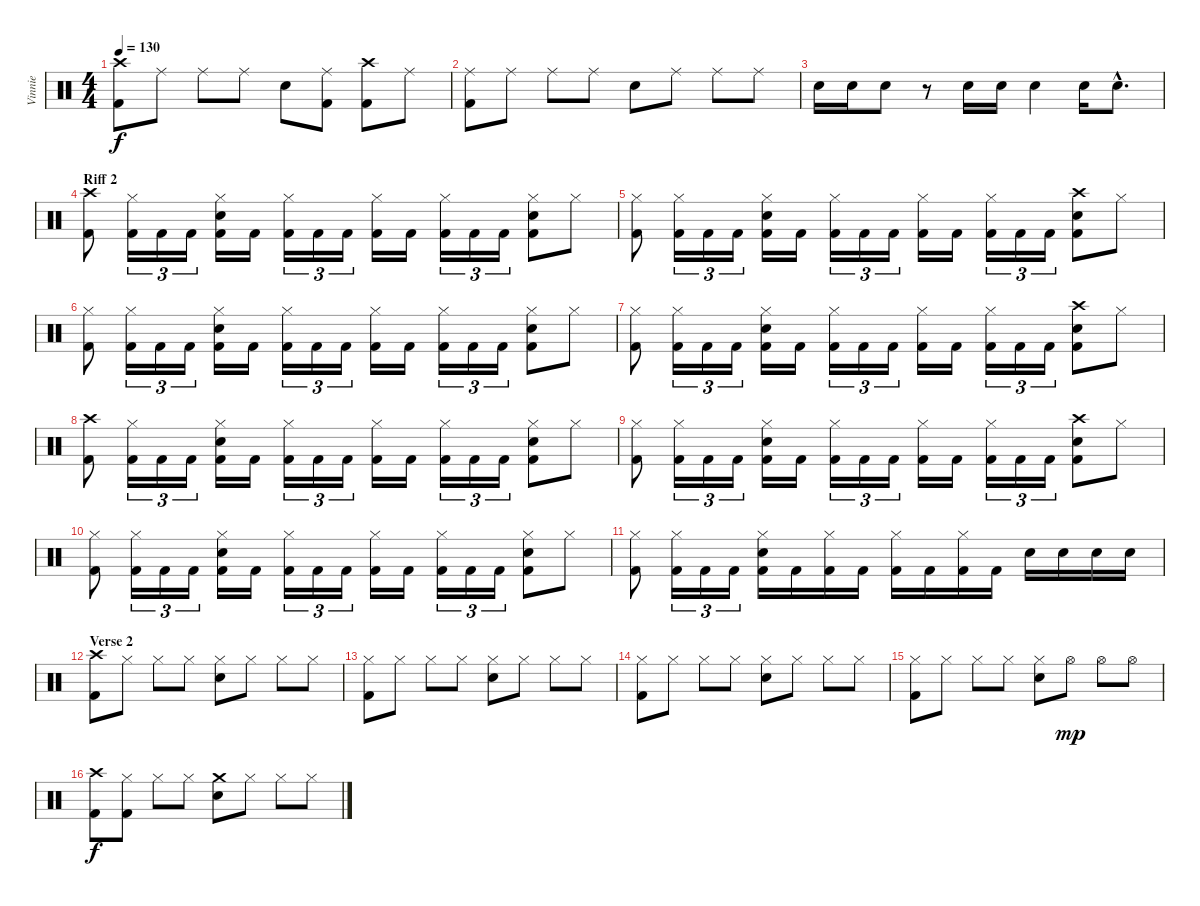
\track ("Vinnie" "Vinnie") {instrument percussion}
\staff {score}
\articulation defaults
\ts (4 4)
\tempo 130
\clef neutral
\ks c
("Crash high (hit)" "Kick (hit) 2").8{dy f} "Ride (middle)".8 "Ride (middle)".8 "Ride (middle)".8 "Electric Snare (hit)".8 ("Ride (middle)" "Kick (hit) 2").8 ("Crash high (hit)" "Kick (hit) 2").8 "Ride (middle)".8 |
("Ride (middle)" "Kick (hit) 2").8 "Ride (middle)".8 "Ride (middle)".8 "Ride (middle)".8 "Electric Snare (hit)".8 "Ride (middle)".8 "Ride (middle)".8 "Ride (middle)".8 |
"Electric Snare (hit)".16 "Electric Snare (hit)".16 "Electric Snare (hit)".8 r.8 "Electric Snare (hit)".16 "Electric Snare (hit)".16 "Electric Snare (hit)".4 "Electric Snare (hit)".16 "Electric Snare (hit)"{hac}.8{d} |
\section ("" "Riff 2")
("Crash high (hit)" "Kick (hit) 2").8 ("Hi-Hat (closed)" "Kick (hit) 2").16{tu (3 2)} "Kick (hit) 2".16{tu (3 2)} "Kick (hit) 2".16{tu (3 2)} ("Hi-Hat (closed)" "Electric Snare (hit)" "Kick (hit) 2").16 "Kick (hit) 2".16 ("Hi-Hat (closed)" "Kick (hit) 2").16{tu (3 2)} "Kick (hit) 2".16{tu (3 2)} "Kick (hit) 2".16{tu (3 2)} ("Hi-Hat (closed)" "Kick (hit) 2").16 "Kick (hit) 2".16 ("Hi-Hat (closed)" "Kick (hit) 2").16{tu (3 2)} "Kick (hit) 2".16{tu (3 2)} "Kick (hit) 2".16{tu (3 2)} ("Hi-Hat (closed)" "Electric Snare (hit)" "Kick (hit) 2").8 "Hi-Hat (closed)".8 |
("Hi-Hat (closed)" "Kick (hit) 2").8 ("Hi-Hat (closed)" "Kick (hit) 2").16{tu (3 2)} "Kick (hit) 2".16{tu (3 2)} "Kick (hit) 2".16{tu (3 2)} ("Hi-Hat (closed)" "Electric Snare (hit)" "Kick (hit) 2").16 "Kick (hit) 2".16 ("Hi-Hat (closed)" "Kick (hit) 2").16{tu (3 2)} "Kick (hit) 2".16{tu (3 2)} "Kick (hit) 2".16{tu (3 2)} ("Hi-Hat (closed)" "Kick (hit) 2").16 "Kick (hit) 2".16 ("Hi-Hat (closed)" "Kick (hit) 2").16{tu (3 2)} "Kick (hit) 2".16{tu (3 2)} "Kick (hit) 2".16{tu (3 2)} ("Crash high (hit)" "Electric Snare (hit)" "Kick (hit) 2").8 "Hi-Hat (closed)".8 |
("Hi-Hat (closed)" "Kick (hit) 2").8 ("Hi-Hat (closed)" "Kick (hit) 2").16{tu (3 2)} "Kick (hit) 2".16{tu (3 2)} "Kick (hit) 2".16{tu (3 2)} ("Hi-Hat (closed)" "Electric Snare (hit)" "Kick (hit) 2").16 "Kick (hit) 2".16 ("Hi-Hat (closed)" "Kick (hit) 2").16{tu (3 2)} "Kick (hit) 2".16{tu (3 2)} "Kick (hit) 2".16{tu (3 2)} ("Hi-Hat (closed)" "Kick (hit) 2").16 "Kick (hit) 2".16 ("Hi-Hat (closed)" "Kick (hit) 2").16{tu (3 2)} "Kick (hit) 2".16{tu (3 2)} "Kick (hit) 2".16{tu (3 2)} ("Hi-Hat (closed)" "Electric Snare (hit)" "Kick (hit) 2").8 "Hi-Hat (closed)".8 |
("Hi-Hat (closed)" "Kick (hit) 2").8 ("Hi-Hat (closed)" "Kick (hit) 2").16{tu (3 2)} "Kick (hit) 2".16{tu (3 2)} "Kick (hit) 2".16{tu (3 2)} ("Hi-Hat (closed)" "Electric Snare (hit)" "Kick (hit) 2").16 "Kick (hit) 2".16 ("Hi-Hat (closed)" "Kick (hit) 2").16{tu (3 2)} "Kick (hit) 2".16{tu (3 2)} "Kick (hit) 2".16{tu (3 2)} ("Hi-Hat (closed)" "Kick (hit) 2").16 "Kick (hit) 2".16 ("Hi-Hat (closed)" "Kick (hit) 2").16{tu (3 2)} "Kick (hit) 2".16{tu (3 2)} "Kick (hit) 2".16{tu (3 2)} ("Crash high (hit)" "Electric Snare (hit)" "Kick (hit) 2").8 "Hi-Hat (closed)".8 |
("Crash high (hit)" "Kick (hit) 2").8 ("Hi-Hat (closed)" "Kick (hit) 2").16{tu (3 2)} "Kick (hit) 2".16{tu (3 2)} "Kick (hit) 2".16{tu (3 2)} ("Hi-Hat (closed)" "Electric Snare (hit)" "Kick (hit) 2").16 "Kick (hit) 2".16 ("Hi-Hat (closed)" "Kick (hit) 2").16{tu (3 2)} "Kick (hit) 2".16{tu (3 2)} "Kick (hit) 2".16{tu (3 2)} ("Hi-Hat (closed)" "Kick (hit) 2").16 "Kick (hit) 2".16 ("Hi-Hat (closed)" "Kick (hit) 2").16{tu (3 2)} "Kick (hit) 2".16{tu (3 2)} "Kick (hit) 2".16{tu (3 2)} ("Hi-Hat (closed)" "Electric Snare (hit)" "Kick (hit) 2").8 "Hi-Hat (closed)".8 |
("Hi-Hat (closed)" "Kick (hit) 2").8 ("Hi-Hat (closed)" "Kick (hit) 2").16{tu (3 2)} "Kick (hit) 2".16{tu (3 2)} "Kick (hit) 2".16{tu (3 2)} ("Hi-Hat (closed)" "Electric Snare (hit)" "Kick (hit) 2").16 "Kick (hit) 2".16 ("Hi-Hat (closed)" "Kick (hit) 2").16{tu (3 2)} "Kick (hit) 2".16{tu (3 2)} "Kick (hit) 2".16{tu (3 2)} ("Hi-Hat (closed)" "Kick (hit) 2").16 "Kick (hit) 2".16 ("Hi-Hat (closed)" "Kick (hit) 2").16{tu (3 2)} "Kick (hit) 2".16{tu (3 2)} "Kick (hit) 2".16{tu (3 2)} ("Crash high (hit)" "Electric Snare (hit)" "Kick (hit) 2").8 "Hi-Hat (closed)".8 |
("Hi-Hat (closed)" "Kick (hit) 2").8 ("Hi-Hat (closed)" "Kick (hit) 2").16{tu (3 2)} "Kick (hit) 2".16{tu (3 2)} "Kick (hit) 2".16{tu (3 2)} ("Hi-Hat (closed)" "Electric Snare (hit)" "Kick (hit) 2").16 "Kick (hit) 2".16 ("Hi-Hat (closed)" "Kick (hit) 2").16{tu (3 2)} "Kick (hit) 2".16{tu (3 2)} "Kick (hit) 2".16{tu (3 2)} ("Hi-Hat (closed)" "Kick (hit) 2").16 "Kick (hit) 2".16 ("Hi-Hat (closed)" "Kick (hit) 2").16{tu (3 2)} "Kick (hit) 2".16{tu (3 2)} "Kick (hit) 2".16{tu (3 2)} ("Hi-Hat (closed)" "Electric Snare (hit)" "Kick (hit) 2").8 "Hi-Hat (closed)".8 |
("Hi-Hat (closed)" "Kick (hit) 2").8 ("Hi-Hat (closed)" "Kick (hit) 2").16{tu (3 2)} "Kick (hit) 2".16{tu (3 2)} "Kick (hit) 2".16{tu (3 2)} ("Hi-Hat (closed)" "Electric Snare (hit)" "Kick (hit) 2").16 "Kick (hit) 2".16 ("Hi-Hat (closed)" "Kick (hit) 2").16 "Kick (hit) 2".16 ("Hi-Hat (closed)" "Kick (hit) 2").16 "Kick (hit) 2".16 ("Hi-Hat (closed)" "Kick (hit) 2").16 "Kick (hit) 2".16 "Electric Snare (hit)".16 "Electric Snare (hit)".16 "Electric Snare (hit)".16 "Electric Snare (hit)".16 |
\section ("" "Verse 2")
("Crash high (hit)" "Kick (hit) 2").8 "Hi-Hat (closed)".8 "Hi-Hat (closed)".8 "Hi-Hat (closed)".8 ("Hi-Hat (closed)" "Electric Snare (hit)").8 "Hi-Hat (closed)".8 "Hi-Hat (closed)".8 "Hi-Hat (closed)".8 |
("Hi-Hat (closed)" "Kick (hit) 2").8 "Hi-Hat (closed)".8 "Hi-Hat (closed)".8 "Hi-Hat (closed)".8 ("Hi-Hat (closed)" "Electric Snare (hit)").8 "Hi-Hat (closed)".8 "Hi-Hat (closed)".8 "Hi-Hat (closed)".8 |
("Hi-Hat (closed)" "Kick (hit) 2").8 "Hi-Hat (closed)".8 "Hi-Hat (closed)".8 "Hi-Hat (closed)".8 ("Hi-Hat (closed)" "Electric Snare (hit)").8 "Hi-Hat (closed)".8 "Hi-Hat (closed)".8 "Hi-Hat (closed)".8 |
("Hi-Hat (closed)" "Kick (hit) 2").8 "Hi-Hat (closed)".8 "Hi-Hat (closed)".8 "Hi-Hat (closed)".8 ("Hi-Hat (closed)" "Electric Snare (hit)").8 "Hi-Hat (open)".8{dy mp} "Hi-Hat (open)".8 "Hi-Hat (open)".8 |
("Crash high (hit)" "Kick (hit) 2").8{dy f} ("Hi-Hat (closed)" "Kick (hit) 2").8 "Hi-Hat (closed)".8 "Hi-Hat (closed)".8 ("Crash medium (hit)" "Electric Snare (hit)").8 "Hi-Hat (closed)".8 "Hi-Hat (closed)".8 "Hi-Hat (closed)".8
